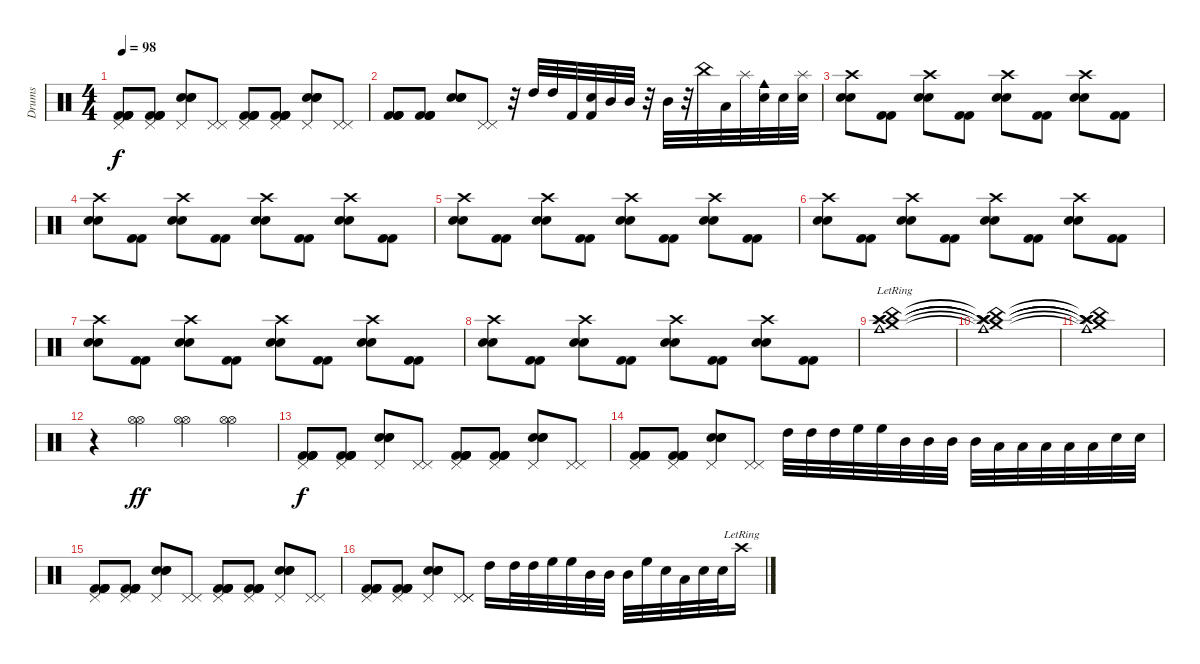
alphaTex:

\track ("Drums" "Drums") {instrument percussion}
\staff {score}
\articulation defaults
\ts (4 4)
\tempo 98
\clef neutral
\ks c
("Pedal Hi-Hat (hit)" "Kick (hit) 2" "Kick (hit) 2" "Kick (hit) 2" "Kick (hit) 2").8{dy f} ("Pedal Hi-Hat (hit)" "Kick (hit) 2" "Kick (hit) 2" "Kick (hit) 2" "Kick (hit) 2").8 ("Pedal Hi-Hat (hit)" "Electric Snare (hit)" "Electric Snare (hit)" "Electric Snare (hit)").8 ("Pedal Hi-Hat (hit)" "Pedal Hi-Hat (hit)").8 ("Pedal Hi-Hat (hit)" "Kick (hit) 2" "Kick (hit) 2" "Kick (hit) 2" "Kick (hit) 2").8 ("Pedal Hi-Hat (hit)" "Kick (hit) 2" "Kick (hit) 2" "Kick (hit) 2" "Kick (hit) 2").8 ("Pedal Hi-Hat (hit)" "Electric Snare (hit)" "Electric Snare (hit)" "Electric Snare (hit)").8 ("Pedal Hi-Hat (hit)" "Pedal Hi-Hat (hit)").8 |
("Kick (hit) 2" "Kick (hit) 2" "Kick (hit) 2" "Kick (hit) 2").8 ("Kick (hit) 2" "Kick (hit) 2" "Kick (hit) 2" "Kick (hit) 2").8 ("Electric Snare (hit)" "Electric Snare (hit)" "Electric Snare (hit)").8 ("Pedal Hi-Hat (hit)" "Pedal Hi-Hat (hit)").8 r.32 "High Tom (hit)".32 "High Tom (hit)".32 "Kick (hit) 2".32 ("Electric Snare (hit)" "Kick (hit) 2").32 "Mid Tom (hit)".32 "Mid Tom (hit)".32 r.32 "Mid Tom (hit)".32 r.32 "China (hit)".32 "Low Tom (hit)".32 "Splash (hit)".32 ("Electric Snare (hit)" "Cowbell medium (hit)").32 "Electric Snare (hit)".32 ("Splash (hit)" "Electric Snare (hit)").32 |
("Crash high (hit)" "Electric Snare (hit)" "Electric Snare (hit)").8 ("Kick (hit) 2" "Kick (hit) 2").8 ("Crash high (hit)" "Electric Snare (hit)" "Electric Snare (hit)").8 ("Kick (hit) 2" "Kick (hit) 2").8 ("Crash high (hit)" "Electric Snare (hit)" "Electric Snare (hit)").8 ("Kick (hit) 2" "Kick (hit) 2").8 ("Crash high (hit)" "Electric Snare (hit)" "Electric Snare (hit)").8 ("Kick (hit) 2" "Kick (hit) 2").8 |
("Crash high (hit)" "Electric Snare (hit)" "Electric Snare (hit)").8 ("Kick (hit) 2" "Kick (hit) 2").8 ("Crash high (hit)" "Electric Snare (hit)" "Electric Snare (hit)").8 ("Kick (hit) 2" "Kick (hit) 2").8 ("Crash high (hit)" "Electric Snare (hit)" "Electric Snare (hit)").8 ("Kick (hit) 2" "Kick (hit) 2").8 ("Crash high (hit)" "Electric Snare (hit)" "Electric Snare (hit)").8 ("Kick (hit) 2" "Kick (hit) 2").8 |
("Crash high (hit)" "Electric Snare (hit)" "Electric Snare (hit)").8 ("Kick (hit) 2" "Kick (hit) 2").8 ("Crash high (hit)" "Electric Snare (hit)" "Electric Snare (hit)").8 ("Kick (hit) 2" "Kick (hit) 2").8 ("Crash high (hit)" "Electric Snare (hit)" "Electric Snare (hit)").8 ("Kick (hit) 2" "Kick (hit) 2").8 ("Crash high (hit)" "Electric Snare (hit)" "Electric Snare (hit)").8 ("Kick (hit) 2" "Kick (hit) 2").8 |
("Crash high (hit)" "Electric Snare (hit)" "Electric Snare (hit)").8 ("Kick (hit) 2" "Kick (hit) 2").8 ("Crash high (hit)" "Electric Snare (hit)" "Electric Snare (hit)").8 ("Kick (hit) 2" "Kick (hit) 2").8 ("Crash high (hit)" "Electric Snare (hit)" "Electric Snare (hit)").8 ("Kick (hit) 2" "Kick (hit) 2").8 ("Crash high (hit)" "Electric Snare (hit)" "Electric Snare (hit)").8 ("Kick (hit) 2" "Kick (hit) 2").8 |
("Crash high (hit)" "Electric Snare (hit)" "Electric Snare (hit)").8 ("Kick (hit) 2" "Kick (hit) 2").8 ("Crash high (hit)" "Electric Snare (hit)" "Electric Snare (hit)").8 ("Kick (hit) 2" "Kick (hit) 2").8 ("Crash high (hit)" "Electric Snare (hit)" "Electric Snare (hit)").8 ("Kick (hit) 2" "Kick (hit) 2").8 ("Crash high (hit)" "Electric Snare (hit)" "Electric Snare (hit)").8 ("Kick (hit) 2" "Kick (hit) 2").8 |
("Crash high (hit)" "Electric Snare (hit)" "Electric Snare (hit)").8 ("Kick (hit) 2" "Kick (hit) 2").8 ("Crash high (hit)" "Electric Snare (hit)" "Electric Snare (hit)").8 ("Kick (hit) 2" "Kick (hit) 2").8 ("Crash high (hit)" "Electric Snare (hit)" "Electric Snare (hit)").8 ("Kick (hit) 2" "Kick (hit) 2").8 ("Crash high (hit)" "Electric Snare (hit)" "Electric Snare (hit)").8 ("Kick (hit) 2" "Kick (hit) 2").8 |
("Cowbell medium (hit)"{lr} "Crash high (hit)"{lr} "Crash high (hit)"{lr} "Crash medium (hit)"{lr} "China (hit)"{lr} "Splash (hit)"{lr}).1 |
("Cowbell medium (hit)"{t} "Crash high (hit)"{t} "Crash high (hit)"{t} "Crash medium (hit)"{t} "China (hit)"{t} "Splash (hit)"{t}).1 |
("Cowbell medium (hit)"{t} "Crash high (hit)"{t} "Crash high (hit)"{t} "Crash medium (hit)"{t} "China (hit)"{t} "Splash (hit)"{t}).1 |
r.4 ("Hi-Hat (open)" "Hi-Hat (open)").4{dy ff} ("Hi-Hat (open)" "Hi-Hat (open)").4 ("Hi-Hat (open)" "Hi-Hat (open)").4 |
("Pedal Hi-Hat (hit)" "Kick (hit) 2" "Kick (hit) 2" "Kick (hit) 2" "Kick (hit) 2").8{dy f} ("Pedal Hi-Hat (hit)" "Kick (hit) 2" "Kick (hit) 2" "Kick (hit) 2" "Kick (hit) 2").8 ("Pedal Hi-Hat (hit)" "Electric Snare (hit)" "Electric Snare (hit)" "Electric Snare (hit)").8 ("Pedal Hi-Hat (hit)" "Pedal Hi-Hat (hit)").8 ("Pedal Hi-Hat (hit)" "Kick (hit) 2" "Kick (hit) 2" "Kick (hit) 2" "Kick (hit) 2").8 ("Pedal Hi-Hat (hit)" "Kick (hit) 2" "Kick (hit) 2" "Kick (hit) 2" "Kick (hit) 2").8 ("Pedal Hi-Hat (hit)" "Electric Snare (hit)" "Electric Snare (hit)" "Electric Snare (hit)").8 ("Pedal Hi-Hat (hit)" "Pedal Hi-Hat (hit)").8 |
("Pedal Hi-Hat (hit)" "Kick (hit) 2" "Kick (hit) 2" "Kick (hit) 2" "Kick (hit) 2").8 ("Pedal Hi-Hat (hit)" "Kick (hit) 2" "Kick (hit) 2" "Kick (hit) 2" "Kick (hit) 2").8 ("Pedal Hi-Hat (hit)" "Electric Snare (hit)" "Electric Snare (hit)" "Electric Snare (hit)").8 ("Pedal Hi-Hat (hit)" "Pedal Hi-Hat (hit)").8 "High Tom (hit)".32 "High Tom (hit)".32 "High Tom (hit)".32 "High Floor Tom (hit)".32 "High Floor Tom (hit)".32 "Mid Tom (hit)".32 "Mid Tom (hit)".32 "Mid Tom (hit)".32 "Mid Tom (hit)".32 "Low Tom (hit)".32 "Low Tom (hit)".32 "Low Tom (hit)".32 "Low Floor Tom (hit)".32 "Low Floor Tom (hit)".32 "Electric Snare (hit)".32 "Electric Snare (hit)".32 |
("Pedal Hi-Hat (hit)" "Kick (hit) 2" "Kick (hit) 2" "Kick (hit) 2" "Kick (hit) 2").8 ("Pedal Hi-Hat (hit)" "Kick (hit) 2" "Kick (hit) 2" "Kick (hit) 2" "Kick (hit) 2").8 ("Pedal Hi-Hat (hit)" "Electric Snare (hit)" "Electric Snare (hit)" "Electric Snare (hit)").8 ("Pedal Hi-Hat (hit)" "Pedal Hi-Hat (hit)").8 ("Pedal Hi-Hat (hit)" "Kick (hit) 2" "Kick (hit) 2" "Kick (hit) 2" "Kick (hit) 2").8 ("Pedal Hi-Hat (hit)" "Kick (hit) 2" "Kick (hit) 2" "Kick (hit) 2" "Kick (hit) 2").8 ("Pedal Hi-Hat (hit)" "Electric Snare (hit)" "Electric Snare (hit)" "Electric Snare (hit)").8 ("Pedal Hi-Hat (hit)" "Pedal Hi-Hat (hit)").8 |
("Pedal Hi-Hat (hit)" "Kick (hit) 2" "Kick (hit) 2" "Kick (hit) 2" "Kick (hit) 2").8 ("Pedal Hi-Hat (hit)" "Kick (hit) 2" "Kick (hit) 2" "Kick (hit) 2" "Kick (hit) 2").8 ("Pedal Hi-Hat (hit)" "Electric Snare (hit)" "Electric Snare (hit)" "Electric Snare (hit)").8 ("Pedal Hi-Hat (hit)" "Pedal Hi-Hat (hit)" "Pedal Hi-Hat (hit)").8 "High Tom (hit)".16 "High Tom (hit)".32 "High Tom (hit)".32 "High Floor Tom (hit)".32 "High Floor Tom (hit)".32 "Mid Tom (hit)".32 "Mid Tom (hit)".32 "Mid Tom (hit)".32 "High Floor Tom (hit)".32 "Snare (hit) 2".32 "Low Tom (hit)".32 "Snare (hit) 2".32 "Electric Snare (hit)".32 "Crash high (hit)"{lr}.16
